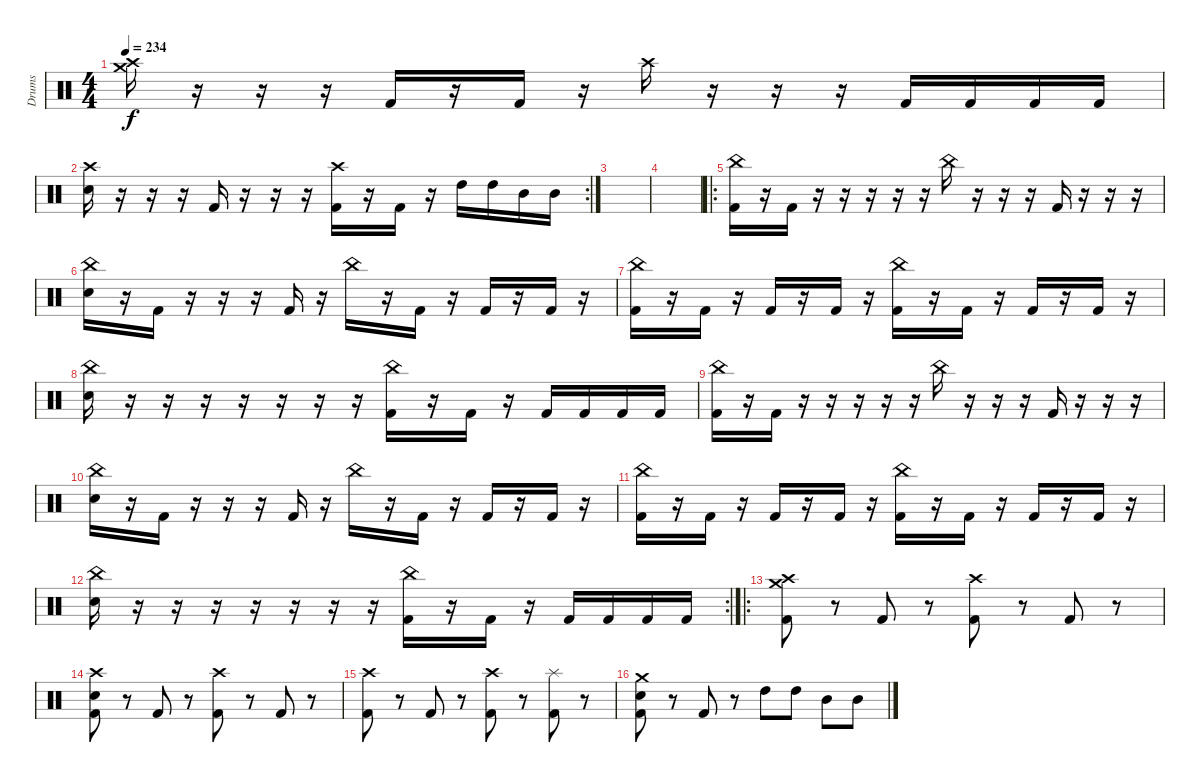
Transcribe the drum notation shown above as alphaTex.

\track ("Drums" "Drums") {instrument percussion}
\staff {score}
\articulation defaults
\ts (4 4)
\tempo 234
\clef neutral
\ks c
("Crash high (hit)" "Crash medium (hit)").16{dy f} r.16 r.16 r.16 "Kick (hit) 2".16 r.16 "Kick (hit) 2".16 r.16 "Crash high (hit)".16 r.16 r.16 r.16 "Kick (hit) 2".16 "Kick (hit) 2".16 "Kick (hit) 2".16 "Kick (hit) 2".16 |
\rc 2
("Crash high (hit)" "Electric Snare (hit)").16 r.16 r.16 r.16 "Kick (hit) 2".16 r.16 r.16 r.16 ("Crash high (hit)" "Kick (hit) 2").16 r.16 "Kick (hit) 2".16 r.16 "High Tom (hit)".16 "High Tom (hit)".16 "Mid Tom (hit)".16 "Mid Tom (hit)".16 |
|
|
\ro
("China (hit)" "Kick (hit) 2").16 r.16 "Kick (hit) 2".16 r.16 r.16 r.16 r.16 r.16 "China (hit)".16 r.16 r.16 r.16 "Kick (hit) 2".16 r.16 r.16 r.16 |
("China (hit)" "Electric Snare (hit)").16 r.16 "Kick (hit) 2".16 r.16 r.16 r.16 "Kick (hit) 2".16 r.16 "China (hit)".16 r.16 "Kick (hit) 2".16 r.16 "Kick (hit) 2".16 r.16 "Kick (hit) 2".16 r.16 |
("China (hit)" "Kick (hit) 2").16 r.16 "Kick (hit) 2".16 r.16 "Kick (hit) 2".16 r.16 "Kick (hit) 2".16 r.16 ("China (hit)" "Kick (hit) 2").16 r.16 "Kick (hit) 2".16 r.16 "Kick (hit) 2".16 r.16 "Kick (hit) 2".16 r.16 |
("China (hit)" "Electric Snare (hit)").16 r.16 r.16 r.16 r.16 r.16 r.16 r.16 ("China (hit)" "Kick (hit) 2").16 r.16 "Kick (hit) 2".16 r.16 "Kick (hit) 2".16 "Kick (hit) 2".16 "Kick (hit) 2".16 "Kick (hit) 2".16 |
("China (hit)" "Kick (hit) 2").16 r.16 "Kick (hit) 2".16 r.16 r.16 r.16 r.16 r.16 "China (hit)".16 r.16 r.16 r.16 "Kick (hit) 2".16 r.16 r.16 r.16 |
("China (hit)" "Electric Snare (hit)").16 r.16 "Kick (hit) 2".16 r.16 r.16 r.16 "Kick (hit) 2".16 r.16 "China (hit)".16 r.16 "Kick (hit) 2".16 r.16 "Kick (hit) 2".16 r.16 "Kick (hit) 2".16 r.16 |
("China (hit)" "Kick (hit) 2").16 r.16 "Kick (hit) 2".16 r.16 "Kick (hit) 2".16 r.16 "Kick (hit) 2".16 r.16 ("China (hit)" "Kick (hit) 2").16 r.16 "Kick (hit) 2".16 r.16 "Kick (hit) 2".16 r.16 "Kick (hit) 2".16 r.16 |
\rc 2
("China (hit)" "Electric Snare (hit)").16 r.16 r.16 r.16 r.16 r.16 r.16 r.16 ("China (hit)" "Kick (hit) 2").16 r.16 "Kick (hit) 2".16 r.16 "Kick (hit) 2".16 "Kick (hit) 2".16 "Kick (hit) 2".16 "Kick (hit) 2".16 |
\ro
("Crash medium (hit)" "Crash high (hit)" "Kick (hit) 2").8 r.8 "Kick (hit) 2".8 r.8 ("Crash high (hit)" "Kick (hit) 2").8 r.8 "Kick (hit) 2".8 r.8 |
("Crash high (hit)" "Electric Snare (hit)" "Kick (hit) 2").8 r.8 "Kick (hit) 2".8 r.8 ("Crash high (hit)" "Kick (hit) 2").8 r.8 "Kick (hit) 2".8 r.8 |
("Crash high (hit)" "Kick (hit) 2").8 r.8 "Kick (hit) 2".8 r.8 ("Crash high (hit)" "Kick (hit) 2").8 r.8 ("Splash (hit)" "Kick (hit) 2").8 r.8 |
("Crash medium (hit)" "Electric Snare (hit)" "Kick (hit) 2").8 r.8 "Kick (hit) 2".8 r.8 "High Tom (hit)".8 "High Tom (hit)".8 "Mid Tom (hit)".8 "Mid Tom (hit)".8
